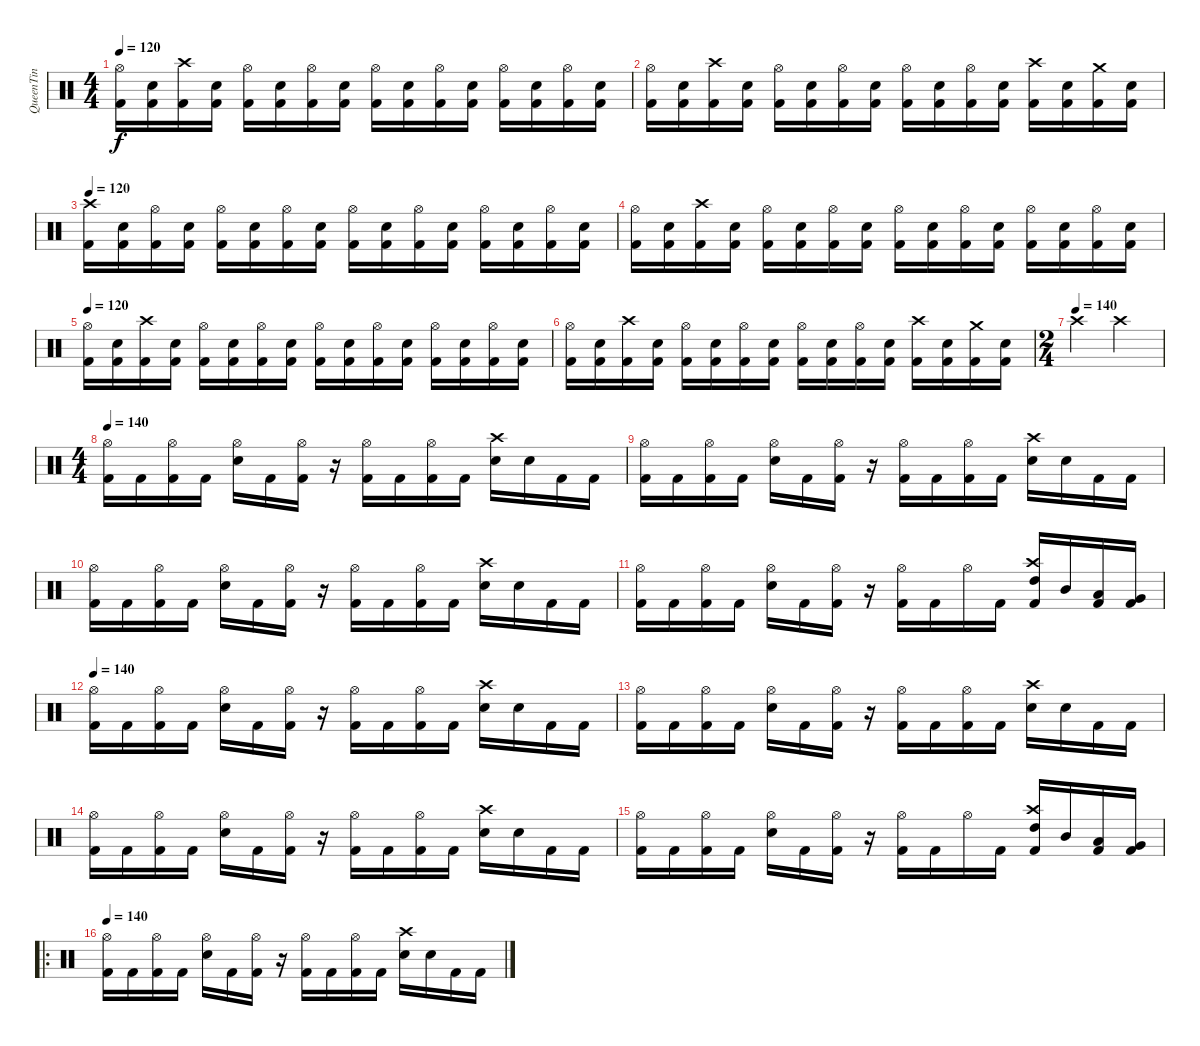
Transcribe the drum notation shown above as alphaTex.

\track ("QueenTin" "QueenTin") {instrument percussion}
\staff {score}
\articulation defaults
\ts (4 4)
\tempo 120
\clef neutral
\ks c
("Hi-Hat (open)" "Kick (hit) 2").16{dy f} ("Snare (hit) 2" "Kick (hit) 2").16 ("Crash high (hit)" "Kick (hit) 2").16 ("Snare (hit) 2" "Kick (hit) 2").16 ("Hi-Hat (open)" "Kick (hit) 2").16 ("Snare (hit) 2" "Kick (hit) 2").16 ("Hi-Hat (open)" "Kick (hit) 2").16 ("Snare (hit) 2" "Kick (hit) 2").16 ("Hi-Hat (open)" "Kick (hit) 2").16 ("Snare (hit) 2" "Kick (hit) 2").16 ("Hi-Hat (open)" "Kick (hit) 2").16 ("Snare (hit) 2" "Kick (hit) 2").16 ("Hi-Hat (open)" "Kick (hit) 2").16 ("Snare (hit) 2" "Kick (hit) 2").16 ("Hi-Hat (open)" "Kick (hit) 2").16 ("Snare (hit) 2" "Kick (hit) 2").16 |
("Hi-Hat (open)" "Kick (hit) 2").16 ("Snare (hit) 2" "Kick (hit) 2").16 ("Crash high (hit)" "Kick (hit) 2").16 ("Snare (hit) 2" "Kick (hit) 2").16 ("Hi-Hat (open)" "Kick (hit) 2").16 ("Snare (hit) 2" "Kick (hit) 2").16 ("Hi-Hat (open)" "Kick (hit) 2").16 ("Snare (hit) 2" "Kick (hit) 2").16 ("Hi-Hat (open)" "Kick (hit) 2").16 ("Snare (hit) 2" "Kick (hit) 2").16 ("Hi-Hat (open)" "Kick (hit) 2").16 ("Snare (hit) 2" "Kick (hit) 2").16 ("Crash high (hit)" "Kick (hit) 2").16 ("Snare (hit) 2" "Kick (hit) 2").16 ("Crash medium (hit)" "Kick (hit) 2").16 ("Snare (hit) 2" "Kick (hit) 2").16 |
\tempo 120
("Crash high (hit)" "Kick (hit) 2").16 ("Snare (hit) 2" "Kick (hit) 2").16 ("Hi-Hat (open)" "Kick (hit) 2").16 ("Snare (hit) 2" "Kick (hit) 2").16 ("Hi-Hat (open)" "Kick (hit) 2").16 ("Snare (hit) 2" "Kick (hit) 2").16 ("Hi-Hat (open)" "Kick (hit) 2").16 ("Snare (hit) 2" "Kick (hit) 2").16 ("Hi-Hat (open)" "Kick (hit) 2").16 ("Snare (hit) 2" "Kick (hit) 2").16 ("Hi-Hat (open)" "Kick (hit) 2").16 ("Snare (hit) 2" "Kick (hit) 2").16 ("Hi-Hat (open)" "Kick (hit) 2").16 ("Snare (hit) 2" "Kick (hit) 2").16 ("Hi-Hat (open)" "Kick (hit) 2").16 ("Snare (hit) 2" "Kick (hit) 2").16 |
("Hi-Hat (open)" "Kick (hit) 2").16 ("Snare (hit) 2" "Kick (hit) 2").16 ("Crash high (hit)" "Kick (hit) 2").16 ("Snare (hit) 2" "Kick (hit) 2").16 ("Hi-Hat (open)" "Kick (hit) 2").16 ("Snare (hit) 2" "Kick (hit) 2").16 ("Hi-Hat (open)" "Kick (hit) 2").16 ("Snare (hit) 2" "Kick (hit) 2").16 ("Hi-Hat (open)" "Kick (hit) 2").16 ("Snare (hit) 2" "Kick (hit) 2").16 ("Hi-Hat (open)" "Kick (hit) 2").16 ("Snare (hit) 2" "Kick (hit) 2").16 ("Hi-Hat (open)" "Kick (hit) 2").16 ("Snare (hit) 2" "Kick (hit) 2").16 ("Hi-Hat (open)" "Kick (hit) 2").16 ("Snare (hit) 2" "Kick (hit) 2").16 |
\tempo 120
("Hi-Hat (open)" "Kick (hit) 2").16 ("Snare (hit) 2" "Kick (hit) 2").16 ("Crash high (hit)" "Kick (hit) 2").16 ("Snare (hit) 2" "Kick (hit) 2").16 ("Hi-Hat (open)" "Kick (hit) 2").16 ("Snare (hit) 2" "Kick (hit) 2").16 ("Hi-Hat (open)" "Kick (hit) 2").16 ("Snare (hit) 2" "Kick (hit) 2").16 ("Hi-Hat (open)" "Kick (hit) 2").16 ("Snare (hit) 2" "Kick (hit) 2").16 ("Hi-Hat (open)" "Kick (hit) 2").16 ("Snare (hit) 2" "Kick (hit) 2").16 ("Hi-Hat (open)" "Kick (hit) 2").16 ("Snare (hit) 2" "Kick (hit) 2").16 ("Hi-Hat (open)" "Kick (hit) 2").16 ("Snare (hit) 2" "Kick (hit) 2").16 |
("Hi-Hat (open)" "Kick (hit) 2").16 ("Snare (hit) 2" "Kick (hit) 2").16 ("Crash high (hit)" "Kick (hit) 2").16 ("Snare (hit) 2" "Kick (hit) 2").16 ("Hi-Hat (open)" "Kick (hit) 2").16 ("Snare (hit) 2" "Kick (hit) 2").16 ("Hi-Hat (open)" "Kick (hit) 2").16 ("Snare (hit) 2" "Kick (hit) 2").16 ("Hi-Hat (open)" "Kick (hit) 2").16 ("Snare (hit) 2" "Kick (hit) 2").16 ("Hi-Hat (open)" "Kick (hit) 2").16 ("Snare (hit) 2" "Kick (hit) 2").16 ("Crash high (hit)" "Kick (hit) 2").16 ("Snare (hit) 2" "Kick (hit) 2").16 ("Crash medium (hit)" "Kick (hit) 2").16 ("Snare (hit) 2" "Kick (hit) 2").16 |
\ts (2 4)
\tempo (140)
"Crash high (hit)".4 "Crash high (hit)".4 |
\ts (4 4)
\tempo 140
("Hi-Hat (open)" "Kick (hit) 2").16 "Kick (hit) 2".16 ("Hi-Hat (open)" "Kick (hit) 2").16 "Kick (hit) 2".16 ("Hi-Hat (open)" "Snare (hit) 2").16 "Kick (hit) 2".16 ("Hi-Hat (open)" "Kick (hit) 2").16 r.16 ("Hi-Hat (open)" "Kick (hit) 2").16 "Kick (hit) 2".16 ("Hi-Hat (open)" "Kick (hit) 2").16 "Kick (hit) 2".16 ("Crash high (hit)" "Snare (hit) 2").16 "Snare (hit) 2".16 "Kick (hit) 2".16 "Kick (hit) 2".16 |
("Hi-Hat (open)" "Kick (hit) 2").16 "Kick (hit) 2".16 ("Hi-Hat (open)" "Kick (hit) 2").16 "Kick (hit) 2".16 ("Hi-Hat (open)" "Snare (hit) 2").16 "Kick (hit) 2".16 ("Hi-Hat (open)" "Kick (hit) 2").16 r.16 ("Hi-Hat (open)" "Kick (hit) 2").16 "Kick (hit) 2".16 ("Hi-Hat (open)" "Kick (hit) 2").16 "Kick (hit) 2".16 ("Crash high (hit)" "Snare (hit) 2").16 "Snare (hit) 2".16 "Kick (hit) 2".16 "Kick (hit) 2".16 |
("Hi-Hat (open)" "Kick (hit) 2").16 "Kick (hit) 2".16 ("Hi-Hat (open)" "Kick (hit) 2").16 "Kick (hit) 2".16 ("Hi-Hat (open)" "Snare (hit) 2").16 "Kick (hit) 2".16 ("Hi-Hat (open)" "Kick (hit) 2").16 r.16 ("Hi-Hat (open)" "Kick (hit) 2").16 "Kick (hit) 2".16 ("Hi-Hat (open)" "Kick (hit) 2").16 "Kick (hit) 2".16 ("Crash high (hit)" "Snare (hit) 2").16 "Snare (hit) 2".16 "Kick (hit) 2".16 "Kick (hit) 2".16 |
("Hi-Hat (open)" "Kick (hit) 2").16 "Kick (hit) 2".16 ("Hi-Hat (open)" "Kick (hit) 2").16 "Kick (hit) 2".16 ("Hi-Hat (open)" "Snare (hit) 2").16 "Kick (hit) 2".16 ("Hi-Hat (open)" "Kick (hit) 2").16 r.16 ("Hi-Hat (open)" "Kick (hit) 2").16 "Kick (hit) 2".16 "Hi-Hat (open)".16 "Kick (hit) 2".16 ("Crash high (hit)" "High Tom (hit)" "Kick (hit) 2").16 "Mid Tom (hit)".16 ("Low Tom (hit)" "Kick (hit) 2").16 ("Very Low Tom (hit)" "Kick (hit) 2").16 |
\tempo 140
("Hi-Hat (open)" "Kick (hit) 2").16 "Kick (hit) 2".16 ("Hi-Hat (open)" "Kick (hit) 2").16 "Kick (hit) 2".16 ("Hi-Hat (open)" "Snare (hit) 2").16 "Kick (hit) 2".16 ("Hi-Hat (open)" "Kick (hit) 2").16 r.16 ("Hi-Hat (open)" "Kick (hit) 2").16 "Kick (hit) 2".16 ("Hi-Hat (open)" "Kick (hit) 2").16 "Kick (hit) 2".16 ("Crash high (hit)" "Snare (hit) 2").16 "Snare (hit) 2".16 "Kick (hit) 2".16 "Kick (hit) 2".16 |
("Hi-Hat (open)" "Kick (hit) 2").16 "Kick (hit) 2".16 ("Hi-Hat (open)" "Kick (hit) 2").16 "Kick (hit) 2".16 ("Hi-Hat (open)" "Snare (hit) 2").16 "Kick (hit) 2".16 ("Hi-Hat (open)" "Kick (hit) 2").16 r.16 ("Hi-Hat (open)" "Kick (hit) 2").16 "Kick (hit) 2".16 ("Hi-Hat (open)" "Kick (hit) 2").16 "Kick (hit) 2".16 ("Crash high (hit)" "Snare (hit) 2").16 "Snare (hit) 2".16 "Kick (hit) 2".16 "Kick (hit) 2".16 |
("Hi-Hat (open)" "Kick (hit) 2").16 "Kick (hit) 2".16 ("Hi-Hat (open)" "Kick (hit) 2").16 "Kick (hit) 2".16 ("Hi-Hat (open)" "Snare (hit) 2").16 "Kick (hit) 2".16 ("Hi-Hat (open)" "Kick (hit) 2").16 r.16 ("Hi-Hat (open)" "Kick (hit) 2").16 "Kick (hit) 2".16 ("Hi-Hat (open)" "Kick (hit) 2").16 "Kick (hit) 2".16 ("Crash high (hit)" "Snare (hit) 2").16 "Snare (hit) 2".16 "Kick (hit) 2".16 "Kick (hit) 2".16 |
("Hi-Hat (open)" "Kick (hit) 2").16 "Kick (hit) 2".16 ("Hi-Hat (open)" "Kick (hit) 2").16 "Kick (hit) 2".16 ("Hi-Hat (open)" "Snare (hit) 2").16 "Kick (hit) 2".16 ("Hi-Hat (open)" "Kick (hit) 2").16 r.16 ("Hi-Hat (open)" "Kick (hit) 2").16 "Kick (hit) 2".16 "Hi-Hat (open)".16 "Kick (hit) 2".16 ("Crash high (hit)" "High Tom (hit)" "Kick (hit) 2").16 "Mid Tom (hit)".16 ("Low Tom (hit)" "Kick (hit) 2").16 ("Very Low Tom (hit)" "Kick (hit) 2").16 |
\ro
\tempo 140
("Hi-Hat (open)" "Kick (hit) 2").16 "Kick (hit) 2".16 ("Hi-Hat (open)" "Kick (hit) 2").16 "Kick (hit) 2".16 ("Hi-Hat (open)" "Snare (hit) 2").16 "Kick (hit) 2".16 ("Hi-Hat (open)" "Kick (hit) 2").16 r.16 ("Hi-Hat (open)" "Kick (hit) 2").16 "Kick (hit) 2".16 ("Hi-Hat (open)" "Kick (hit) 2").16 "Kick (hit) 2".16 ("Crash high (hit)" "Snare (hit) 2").16 "Snare (hit) 2".16 "Kick (hit) 2".16 "Kick (hit) 2".16
